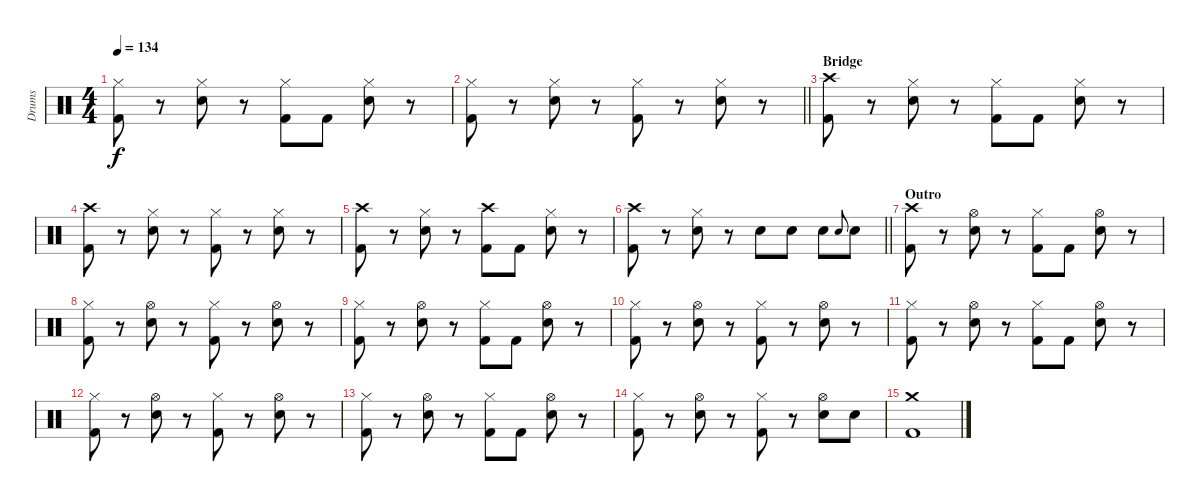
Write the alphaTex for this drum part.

\track ("Drums" "Drums") {instrument percussion}
\staff {score}
\articulation defaults
\ts (4 4)
\tempo 134
\clef neutral
\ks c
("Hi-Hat (closed)" "Kick (hit) 2").8{dy f} r.8 ("Hi-Hat (closed)" "Snare (hit) 2").8 r.8 ("Hi-Hat (closed)" "Kick (hit) 2").8 "Kick (hit) 2".8 ("Hi-Hat (closed)" "Snare (hit) 2").8 r.8 |
\barLineRight lightlight
("Hi-Hat (closed)" "Kick (hit) 2").8 r.8 ("Hi-Hat (closed)" "Snare (hit) 2").8 r.8 ("Hi-Hat (closed)" "Kick (hit) 2").8 r.8 ("Hi-Hat (closed)" "Snare (hit) 2").8 r.8 |
\section ("" "Bridge")
("Crash high (hit)" "Kick (hit) 2").8 r.8 ("Hi-Hat (closed)" "Snare (hit) 2").8 r.8 ("Hi-Hat (closed)" "Kick (hit) 2").8 "Kick (hit) 2".8 ("Hi-Hat (closed)" "Snare (hit) 2").8 r.8 |
("Crash high (hit)" "Kick (hit) 2").8 r.8 ("Hi-Hat (closed)" "Snare (hit) 2").8 r.8 ("Hi-Hat (closed)" "Kick (hit) 2").8 r.8 ("Hi-Hat (closed)" "Snare (hit) 2").8 r.8 |
("Crash high (hit)" "Kick (hit) 2").8 r.8 ("Hi-Hat (closed)" "Snare (hit) 2").8 r.8 ("Crash high (hit)" "Kick (hit) 2").8 "Kick (hit) 2".8 ("Hi-Hat (closed)" "Snare (hit) 2").8 r.8 |
\barLineRight lightlight
("Crash high (hit)" "Kick (hit) 2").8 r.8 ("Hi-Hat (closed)" "Snare (hit) 2").8 r.8 "Snare (hit) 2".8 "Snare (hit) 2".8 "Snare (hit) 2".8 "Snare (hit) 2".8{gr onbeat} "Snare (hit) 2".8 |
\section ("" "Outro")
("Crash high (hit)" "Kick (hit) 2").8 r.8 ("Hi-Hat (open)" "Snare (hit) 2").8 r.8 ("Hi-Hat (closed)" "Kick (hit) 2").8 "Kick (hit) 2".8 ("Hi-Hat (open)" "Snare (hit) 2").8 r.8 |
("Hi-Hat (closed)" "Kick (hit) 2").8 r.8 ("Hi-Hat (open)" "Snare (hit) 2").8 r.8 ("Hi-Hat (closed)" "Kick (hit) 2").8 r.8 ("Hi-Hat (open)" "Snare (hit) 2").8 r.8 |
("Hi-Hat (closed)" "Kick (hit) 2").8 r.8 ("Hi-Hat (open)" "Snare (hit) 2").8 r.8 ("Hi-Hat (closed)" "Kick (hit) 2").8 "Kick (hit) 2".8 ("Hi-Hat (open)" "Snare (hit) 2").8 r.8 |
("Hi-Hat (closed)" "Kick (hit) 2").8 r.8 ("Hi-Hat (open)" "Snare (hit) 2").8 r.8 ("Hi-Hat (closed)" "Kick (hit) 2").8 r.8 ("Hi-Hat (open)" "Snare (hit) 2").8 r.8 |
("Hi-Hat (closed)" "Kick (hit) 2").8 r.8 ("Hi-Hat (open)" "Snare (hit) 2").8 r.8 ("Hi-Hat (closed)" "Kick (hit) 2").8 "Kick (hit) 2".8 ("Hi-Hat (open)" "Snare (hit) 2").8 r.8 |
("Hi-Hat (closed)" "Kick (hit) 2").8 r.8 ("Hi-Hat (open)" "Snare (hit) 2").8 r.8 ("Hi-Hat (closed)" "Kick (hit) 2").8 r.8 ("Hi-Hat (open)" "Snare (hit) 2").8 r.8 |
("Hi-Hat (closed)" "Kick (hit) 2").8 r.8 ("Hi-Hat (open)" "Snare (hit) 2").8 r.8 ("Hi-Hat (closed)" "Kick (hit) 2").8 "Kick (hit) 2".8 ("Hi-Hat (open)" "Snare (hit) 2").8 r.8 |
("Hi-Hat (closed)" "Kick (hit) 2").8 r.8 ("Hi-Hat (open)" "Snare (hit) 2").8 r.8 ("Hi-Hat (closed)" "Kick (hit) 2").8 r.8 ("Hi-Hat (open)" "Snare (hit) 2").8 "Snare (hit) 2".8 |
("Crash medium (hit)" "Kick (hit) 2").1
